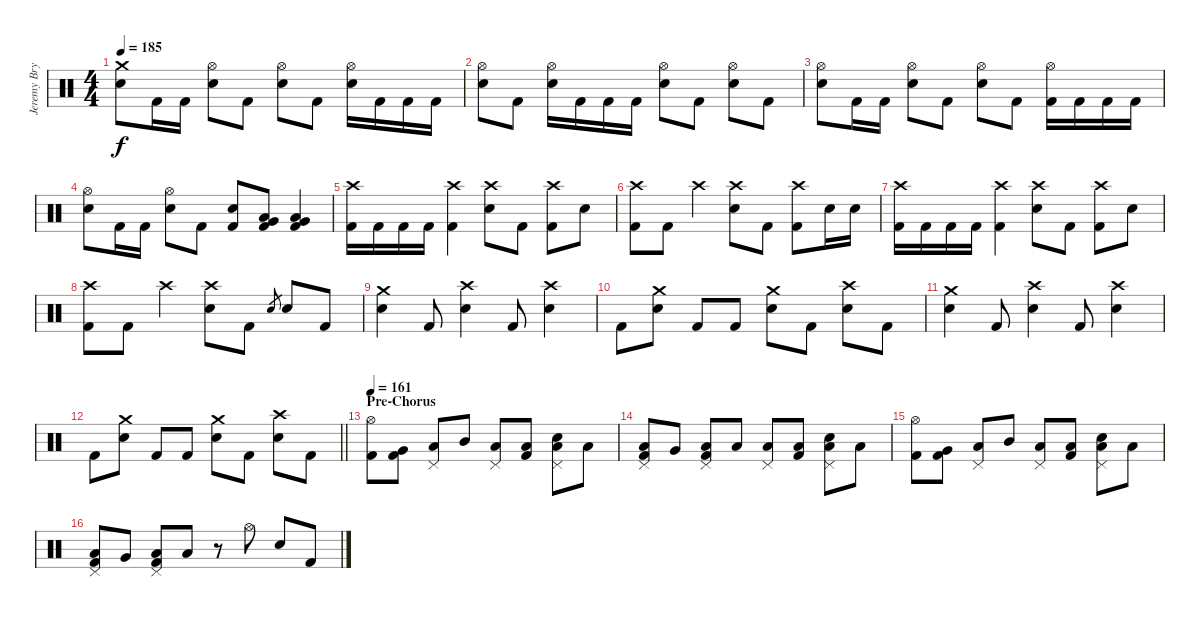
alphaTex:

\track ("Jeremy Bryan - Drums" "Jeremy Bry") {instrument percussion}
\staff {score}
\articulation defaults
\ts (4 4)
\tempo 185
\clef neutral
\ks c
("Crash medium (hit)" "Electric Snare (hit)").8{dy f} "Kick (hit) 2".16 "Kick (hit) 2".16 ("Hi-Hat (open)" "Electric Snare (hit)").8 "Kick (hit) 2".8 ("Hi-Hat (open)" "Electric Snare (hit)").8 "Kick (hit) 2".8 ("Hi-Hat (open)" "Electric Snare (hit)").16 "Kick (hit) 2".16 "Kick (hit) 2".16 "Kick (hit) 2".16 |
("Hi-Hat (open)" "Electric Snare (hit)").8 "Kick (hit) 2".8 ("Hi-Hat (open)" "Electric Snare (hit)").16 "Kick (hit) 2".16 "Kick (hit) 2".16 "Kick (hit) 2".16 ("Hi-Hat (open)" "Electric Snare (hit)").8 "Kick (hit) 2".8 ("Hi-Hat (open)" "Electric Snare (hit)").8 "Kick (hit) 2".8 |
("Hi-Hat (open)" "Electric Snare (hit)").8 "Kick (hit) 2".16 "Kick (hit) 2".16 ("Hi-Hat (open)" "Electric Snare (hit)").8 "Kick (hit) 2".8 ("Hi-Hat (open)" "Electric Snare (hit)").8 "Kick (hit) 2".8 ("Hi-Hat (open)" "Kick (hit) 2").16 "Kick (hit) 2".16 "Kick (hit) 2".16 "Kick (hit) 2".16 |
("Hi-Hat (open)" "Electric Snare (hit)").8 "Kick (hit) 2".16 "Kick (hit) 2".16 ("Hi-Hat (open)" "Electric Snare (hit)").8 "Kick (hit) 2".8 ("Electric Snare (hit)" "Kick (hit) 2").8 ("Low Tom (hit)" "Very Low Tom (hit)" "Kick (hit) 2").8 ("Low Tom (hit)" "Very Low Tom (hit)" "Kick (hit) 2").4 |
("Crash high (hit)" "Kick (hit) 2").16 "Kick (hit) 2".16 "Kick (hit) 2".16 "Kick (hit) 2".16 ("Crash high (hit)" "Kick (hit) 2").4 ("Crash high (hit)" "Electric Snare (hit)").8 "Kick (hit) 2".8 ("Crash high (hit)" "Kick (hit) 2").8 "Electric Snare (hit)".8 |
("Crash high (hit)" "Kick (hit) 2").8 "Kick (hit) 2".8 "Crash high (hit)".4 ("Crash high (hit)" "Electric Snare (hit)").8 "Kick (hit) 2".8 ("Crash high (hit)" "Kick (hit) 2").8 "Electric Snare (hit)".16 "Electric Snare (hit)".16 |
("Crash high (hit)" "Kick (hit) 2").16 "Kick (hit) 2".16 "Kick (hit) 2".16 "Kick (hit) 2".16 ("Crash high (hit)" "Kick (hit) 2").4 ("Crash high (hit)" "Electric Snare (hit)").8 "Kick (hit) 2".8 ("Crash high (hit)" "Kick (hit) 2").8 "Electric Snare (hit)".8 |
("Crash high (hit)" "Kick (hit) 2").8 "Kick (hit) 2".8 "Crash high (hit)".4 ("Crash high (hit)" "Electric Snare (hit)").8 "Kick (hit) 2".8 "Electric Snare (hit)".8{gr} "Electric Snare (hit)".8 "Kick (hit) 2".8 |
("Crash medium (hit)" "Electric Snare (hit)").4 "Kick (hit) 2".8 ("Crash high (hit)" "Electric Snare (hit)").4 "Kick (hit) 2".8 ("Crash high (hit)" "Electric Snare (hit)").4 |
"Kick (hit) 2".8 ("Crash medium (hit)" "Electric Snare (hit)").8 "Kick (hit) 2".8 "Kick (hit) 2".8 ("Crash medium (hit)" "Electric Snare (hit)").8 "Kick (hit) 2".8 ("Crash high (hit)" "Electric Snare (hit)").8 "Kick (hit) 2".8 |
("Crash medium (hit)" "Electric Snare (hit)").4 "Kick (hit) 2".8 ("Crash high (hit)" "Electric Snare (hit)").4 "Kick (hit) 2".8 ("Crash high (hit)" "Electric Snare (hit)").4 |
\barLineRight lightlight "Kick (hit) 2".8
("Crash medium (hit)" "Electric Snare (hit)").8 "Kick (hit) 2".8 "Kick (hit) 2".8 ("Crash medium (hit)" "Electric Snare (hit)").8 "Kick (hit) 2".8 ("Crash high (hit)" "Electric Snare (hit)").8 "Kick (hit) 2".8 |
\section ("" "Pre-Chorus")
\tempo 161
("Hi-Hat (open)" "Kick (hit) 2").8 ("Very Low Tom (hit)" "Kick (hit) 2").8 ("Pedal Hi-Hat (hit)" "Low Tom (hit)").8 "Mid Tom (hit)".8 ("Pedal Hi-Hat (hit)" "Low Floor Tom (hit)").8 ("Low Floor Tom (hit)" "Kick (hit) 2").8 ("Pedal Hi-Hat (hit)" "Low Floor Tom (hit)" "Electric Snare (hit)").8 "Low Floor Tom (hit)".8 |
("Pedal Hi-Hat (hit)" "Low Floor Tom (hit)" "Kick (hit) 2").8 "Very Low Tom (hit)".8 ("Pedal Hi-Hat (hit)" "Low Tom (hit)" "Kick (hit) 2").8 "Low Tom (hit)".8 ("Pedal Hi-Hat (hit)" "Low Floor Tom (hit)").8 ("Low Floor Tom (hit)" "Kick (hit) 2").8 ("Pedal Hi-Hat (hit)" "Low Floor Tom (hit)" "Electric Snare (hit)").8 "Low Floor Tom (hit)".8 |
("Hi-Hat (open)" "Kick (hit) 2").8 ("Very Low Tom (hit)" "Kick (hit) 2").8 ("Pedal Hi-Hat (hit)" "Low Tom (hit)").8 "Mid Tom (hit)".8 ("Pedal Hi-Hat (hit)" "Low Floor Tom (hit)").8 ("Low Floor Tom (hit)" "Kick (hit) 2").8 ("Pedal Hi-Hat (hit)" "Low Floor Tom (hit)" "Electric Snare (hit)").8 "Low Floor Tom (hit)".8 |
("Pedal Hi-Hat (hit)" "Low Floor Tom (hit)" "Kick (hit) 2").8 "Very Low Tom (hit)".8 ("Pedal Hi-Hat (hit)" "Low Tom (hit)" "Kick (hit) 2").8 "Low Tom (hit)".8 r.8 "Hi-Hat (open)".8 "Electric Snare (hit)".8 "Kick (hit) 2".8
